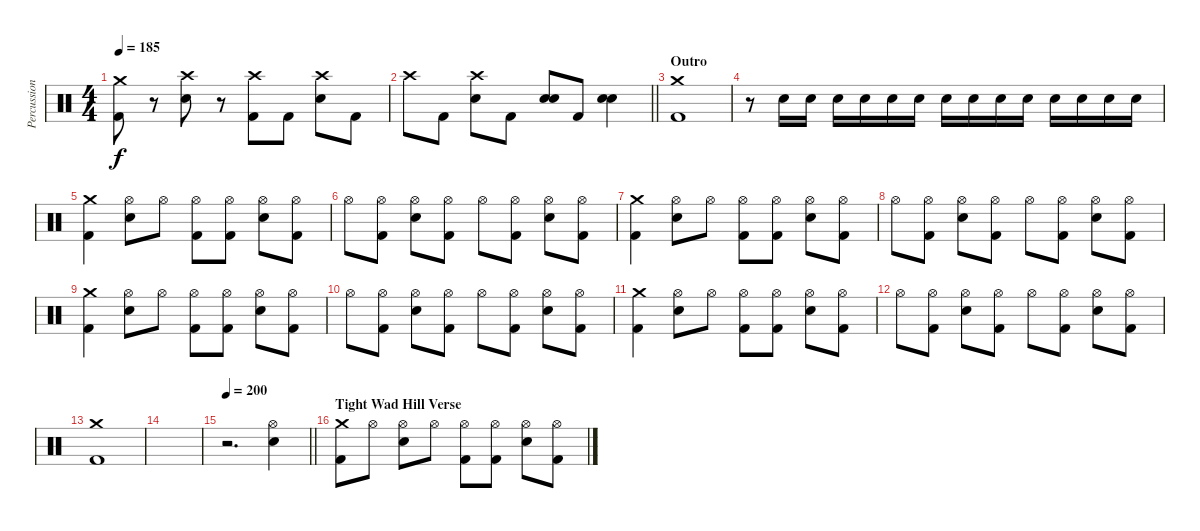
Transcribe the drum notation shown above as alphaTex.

\track ("Percussion" "Percussion") {instrument percussion}
\staff {score}
\articulation defaults
\ts (4 4)
\tempo 185
\clef neutral
\ks c
("Crash medium (hit)" "Kick (hit) 2").8{dy f} r.8 ("Crash high (hit)" "Electric Snare (hit)").8 r.8 ("Crash high (hit)" "Kick (hit) 2").8 "Kick (hit) 2".8 ("Crash high (hit)" "Electric Snare (hit)").8 "Kick (hit) 2".8 |
\barLineRight lightlight "Crash high (hit)".8 "Kick (hit) 2".8
("Crash high (hit)" "Electric Snare (hit)").8 "Kick (hit) 2".8 ("Electric Snare (hit)" "Electric Snare (hit)").8 "Kick (hit) 2".8 ("Electric Snare (hit)" "Electric Snare (hit)").4 |
\section ("" "Outro")
("Crash medium (hit)" "Kick (hit) 2").1 |
r.8 "Electric Snare (hit)".16 "Electric Snare (hit)".16 "Electric Snare (hit)".16 "Electric Snare (hit)".16 "Electric Snare (hit)".16 "Electric Snare (hit)".16 "Electric Snare (hit)".16 "Electric Snare (hit)".16 "Electric Snare (hit)".16 "Electric Snare (hit)".16 "Electric Snare (hit)".16 "Electric Snare (hit)".16 "Electric Snare (hit)".16 "Electric Snare (hit)".16 |
("Crash medium (hit)" "Kick (hit) 2").4 ("Hi-Hat (open)" "Electric Snare (hit)").8 "Hi-Hat (open)".8 ("Hi-Hat (open)" "Kick (hit) 2").8 ("Hi-Hat (open)" "Kick (hit) 2").8 ("Hi-Hat (open)" "Electric Snare (hit)").8 ("Hi-Hat (open)" "Kick (hit) 2").8 |
"Hi-Hat (open)".8 ("Hi-Hat (open)" "Kick (hit) 2").8 ("Hi-Hat (open)" "Electric Snare (hit)").8 ("Hi-Hat (open)" "Kick (hit) 2").8 "Hi-Hat (open)".8 ("Hi-Hat (open)" "Kick (hit) 2").8 ("Hi-Hat (open)" "Electric Snare (hit)").8 ("Hi-Hat (open)" "Kick (hit) 2").8 |
("Crash medium (hit)" "Kick (hit) 2").4 ("Hi-Hat (open)" "Electric Snare (hit)").8 "Hi-Hat (open)".8 ("Hi-Hat (open)" "Kick (hit) 2").8 ("Hi-Hat (open)" "Kick (hit) 2").8 ("Hi-Hat (open)" "Electric Snare (hit)").8 ("Hi-Hat (open)" "Kick (hit) 2").8 |
"Hi-Hat (open)".8 ("Hi-Hat (open)" "Kick (hit) 2").8 ("Hi-Hat (open)" "Electric Snare (hit)").8 ("Hi-Hat (open)" "Kick (hit) 2").8 "Hi-Hat (open)".8 ("Hi-Hat (open)" "Kick (hit) 2").8 ("Hi-Hat (open)" "Electric Snare (hit)").8 ("Hi-Hat (open)" "Kick (hit) 2").8 |
("Crash medium (hit)" "Kick (hit) 2").4 ("Hi-Hat (open)" "Electric Snare (hit)").8 "Hi-Hat (open)".8 ("Hi-Hat (open)" "Kick (hit) 2").8 ("Hi-Hat (open)" "Kick (hit) 2").8 ("Hi-Hat (open)" "Electric Snare (hit)").8 ("Hi-Hat (open)" "Kick (hit) 2").8 |
"Hi-Hat (open)".8 ("Hi-Hat (open)" "Kick (hit) 2").8 ("Hi-Hat (open)" "Electric Snare (hit)").8 ("Hi-Hat (open)" "Kick (hit) 2").8 "Hi-Hat (open)".8 ("Hi-Hat (open)" "Kick (hit) 2").8 ("Hi-Hat (open)" "Electric Snare (hit)").8 ("Hi-Hat (open)" "Kick (hit) 2").8 |
("Crash medium (hit)" "Kick (hit) 2").4 ("Hi-Hat (open)" "Electric Snare (hit)").8 "Hi-Hat (open)".8 ("Hi-Hat (open)" "Kick (hit) 2").8 ("Hi-Hat (open)" "Kick (hit) 2").8 ("Hi-Hat (open)" "Electric Snare (hit)").8 ("Hi-Hat (open)" "Kick (hit) 2").8 |
"Hi-Hat (open)".8 ("Hi-Hat (open)" "Kick (hit) 2").8 ("Hi-Hat (open)" "Electric Snare (hit)").8 ("Hi-Hat (open)" "Kick (hit) 2").8 "Hi-Hat (open)".8 ("Hi-Hat (open)" "Kick (hit) 2").8 ("Hi-Hat (open)" "Electric Snare (hit)").8 ("Hi-Hat (open)" "Kick (hit) 2").8 |
("Crash medium (hit)" "Kick (hit) 2").1 |
|
\tempo 200
\barLineRight lightlight
r.2{d} ("Hi-Hat (open)" "Electric Snare (hit)").4 |
\section ("" "Tight Wad Hill Verse")
("Crash medium (hit)" "Kick (hit) 2").8 "Hi-Hat (open)".8 ("Hi-Hat (open)" "Electric Snare (hit)").8 "Hi-Hat (open)".8 ("Hi-Hat (open)" "Kick (hit) 2").8 ("Hi-Hat (open)" "Kick (hit) 2").8 ("Hi-Hat (open)" "Electric Snare (hit)").8 ("Hi-Hat (open)" "Kick (hit) 2").8
